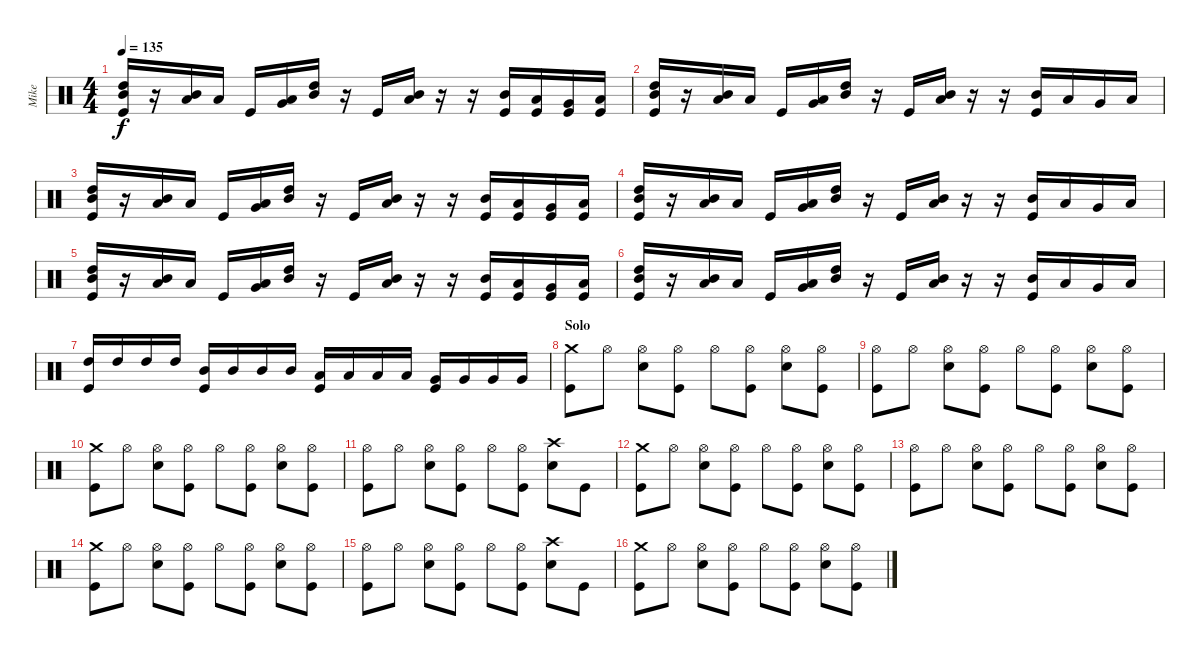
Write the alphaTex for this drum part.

\track ("Mike" "Mike") {instrument percussion}
\staff {score}
\articulation defaults
\ts (4 4)
\tempo 135
\clef neutral
\ks c
("Mid Tom (hit)" "High Tom (hit)" "Kick (hit)").16{bu 240 dy f} r.16 ("Low Tom (hit)" "Mid Tom (hit)").16{bu 240} "Low Tom (hit)".16 "Kick (hit)".16 ("Low Tom (hit)" "Very Low Tom (hit)").16 ("Mid Tom (hit)" "High Tom (hit)").16{bu 240} r.16 "Kick (hit)".16 ("Low Tom (hit)" "Mid Tom (hit)").16{bu 240} r.16 r.16 ("Mid Tom (hit)" "Kick (hit)").16 ("Low Tom (hit)" "Kick (hit)").16 ("Very Low Tom (hit)" "Kick (hit)").16 ("Low Floor Tom (hit)" "Kick (hit)").16 |
("Mid Tom (hit)" "High Tom (hit)" "Kick (hit)").16{bu 240} r.16 ("Low Tom (hit)" "Mid Tom (hit)").16{bu 240} "Low Tom (hit)".16 "Kick (hit)".16 ("Low Tom (hit)" "Very Low Tom (hit)").16 ("Mid Tom (hit)" "High Tom (hit)").16{bu 240} r.16 "Kick (hit)".16 ("Low Tom (hit)" "Mid Tom (hit)").16{bu 240} r.16 r.16 ("Mid Tom (hit)" "Kick (hit)").16 "Low Tom (hit)".16 "Very Low Tom (hit)".16 "Low Floor Tom (hit)".16 |
("Mid Tom (hit)" "High Tom (hit)" "Kick (hit)").16{bu 240} r.16 ("Low Tom (hit)" "Mid Tom (hit)").16{bu 240} "Low Tom (hit)".16 "Kick (hit)".16 ("Low Tom (hit)" "Very Low Tom (hit)").16 ("Mid Tom (hit)" "High Tom (hit)").16{bu 240} r.16 "Kick (hit)".16 ("Low Tom (hit)" "Mid Tom (hit)").16{bu 240} r.16 r.16 ("Mid Tom (hit)" "Kick (hit)").16 ("Low Tom (hit)" "Kick (hit)").16 ("Very Low Tom (hit)" "Kick (hit)").16 ("Low Floor Tom (hit)" "Kick (hit)").16 |
("Mid Tom (hit)" "High Tom (hit)" "Kick (hit)").16{bu 240} r.16 ("Low Tom (hit)" "Mid Tom (hit)").16{bu 240} "Low Tom (hit)".16 "Kick (hit)".16 ("Low Tom (hit)" "Very Low Tom (hit)").16 ("Mid Tom (hit)" "High Tom (hit)").16{bu 240} r.16 "Kick (hit)".16 ("Low Tom (hit)" "Mid Tom (hit)").16{bu 240} r.16 r.16 ("Mid Tom (hit)" "Kick (hit)").16 "Low Tom (hit)".16 "Very Low Tom (hit)".16 "Low Floor Tom (hit)".16 |
("Mid Tom (hit)" "High Tom (hit)" "Kick (hit)").16{bu 240} r.16 ("Low Tom (hit)" "Mid Tom (hit)").16{bu 240} "Low Tom (hit)".16 "Kick (hit)".16 ("Low Tom (hit)" "Very Low Tom (hit)").16 ("Mid Tom (hit)" "High Tom (hit)").16{bu 240} r.16 "Kick (hit)".16 ("Low Tom (hit)" "Mid Tom (hit)").16{bu 240} r.16 r.16 ("Mid Tom (hit)" "Kick (hit)").16 ("Low Tom (hit)" "Kick (hit)").16 ("Very Low Tom (hit)" "Kick (hit)").16 ("Low Floor Tom (hit)" "Kick (hit)").16 |
("Mid Tom (hit)" "High Tom (hit)" "Kick (hit)").16{bu 240} r.16 ("Low Tom (hit)" "Mid Tom (hit)").16{bu 240} "Low Tom (hit)".16 "Kick (hit)".16 ("Low Tom (hit)" "Very Low Tom (hit)").16 ("Mid Tom (hit)" "High Tom (hit)").16{bu 240} r.16 "Kick (hit)".16 ("Low Tom (hit)" "Mid Tom (hit)").16{bu 240} r.16 r.16 ("Mid Tom (hit)" "Kick (hit)").16 "Low Tom (hit)".16 "Very Low Tom (hit)".16 "Low Floor Tom (hit)".16 |
("High Tom (hit)" "Kick (hit)").16 "High Tom (hit)".16 "High Tom (hit)".16 "High Tom (hit)".16 ("Mid Tom (hit)" "Kick (hit)").16 "Mid Tom (hit)".16 "Mid Tom (hit)".16 "Mid Tom (hit)".16 ("Low Tom (hit)" "Kick (hit)").16 "Low Tom (hit)".16 "Low Tom (hit)".16 "Low Tom (hit)".16 ("Very Low Tom (hit)" "Kick (hit)").16 "Very Low Tom (hit)".16 "Very Low Tom (hit)".16 "Very Low Tom (hit)".16 |
\section ("" "Solo")
("Crash medium (hit)" "Kick (hit)").8 "Hi-Hat (open)".8 ("Hi-Hat (open)" "Electric Snare (hit)").8 ("Hi-Hat (open)" "Kick (hit)").8 "Hi-Hat (open)".8 ("Hi-Hat (open)" "Kick (hit)").8 ("Hi-Hat (open)" "Electric Snare (hit)").8 ("Hi-Hat (open)" "Kick (hit)").8 |
("Hi-Hat (open)" "Kick (hit)").8 "Hi-Hat (open)".8 ("Hi-Hat (open)" "Electric Snare (hit)").8 ("Hi-Hat (open)" "Kick (hit)").8 "Hi-Hat (open)".8 ("Hi-Hat (open)" "Kick (hit)").8 ("Hi-Hat (open)" "Electric Snare (hit)").8 ("Hi-Hat (open)" "Kick (hit)").8 |
("Crash medium (hit)" "Kick (hit)").8 "Hi-Hat (open)".8 ("Hi-Hat (open)" "Electric Snare (hit)").8 ("Hi-Hat (open)" "Kick (hit)").8 "Hi-Hat (open)".8 ("Hi-Hat (open)" "Kick (hit)").8 ("Hi-Hat (open)" "Electric Snare (hit)").8 ("Hi-Hat (open)" "Kick (hit)").8 |
("Hi-Hat (open)" "Kick (hit)").8 "Hi-Hat (open)".8 ("Hi-Hat (open)" "Electric Snare (hit)").8 ("Hi-Hat (open)" "Kick (hit)").8 "Hi-Hat (open)".8 ("Hi-Hat (open)" "Kick (hit)").8 ("Crash high (hit)" "Electric Snare (hit)").8 "Kick (hit)".8 |
("Crash medium (hit)" "Kick (hit)").8 "Hi-Hat (open)".8 ("Hi-Hat (open)" "Electric Snare (hit)").8 ("Hi-Hat (open)" "Kick (hit)").8 "Hi-Hat (open)".8 ("Hi-Hat (open)" "Kick (hit)").8 ("Hi-Hat (open)" "Electric Snare (hit)").8 ("Hi-Hat (open)" "Kick (hit)").8 |
("Hi-Hat (open)" "Kick (hit)").8 "Hi-Hat (open)".8 ("Hi-Hat (open)" "Electric Snare (hit)").8 ("Hi-Hat (open)" "Kick (hit)").8 "Hi-Hat (open)".8 ("Hi-Hat (open)" "Kick (hit)").8 ("Hi-Hat (open)" "Electric Snare (hit)").8 ("Hi-Hat (open)" "Kick (hit)").8 |
("Crash medium (hit)" "Kick (hit)").8 "Hi-Hat (open)".8 ("Hi-Hat (open)" "Electric Snare (hit)").8 ("Hi-Hat (open)" "Kick (hit)").8 "Hi-Hat (open)".8 ("Hi-Hat (open)" "Kick (hit)").8 ("Hi-Hat (open)" "Electric Snare (hit)").8 ("Hi-Hat (open)" "Kick (hit)").8 |
("Hi-Hat (open)" "Kick (hit)").8 "Hi-Hat (open)".8 ("Hi-Hat (open)" "Electric Snare (hit)").8 ("Hi-Hat (open)" "Kick (hit)").8 "Hi-Hat (open)".8 ("Hi-Hat (open)" "Kick (hit)").8 ("Crash high (hit)" "Electric Snare (hit)").8 "Kick (hit)".8 |
("Crash medium (hit)" "Kick (hit)").8 "Hi-Hat (open)".8 ("Hi-Hat (open)" "Electric Snare (hit)").8 ("Hi-Hat (open)" "Kick (hit)").8 "Hi-Hat (open)".8 ("Hi-Hat (open)" "Kick (hit)").8 ("Hi-Hat (open)" "Electric Snare (hit)").8 ("Hi-Hat (open)" "Kick (hit)").8
